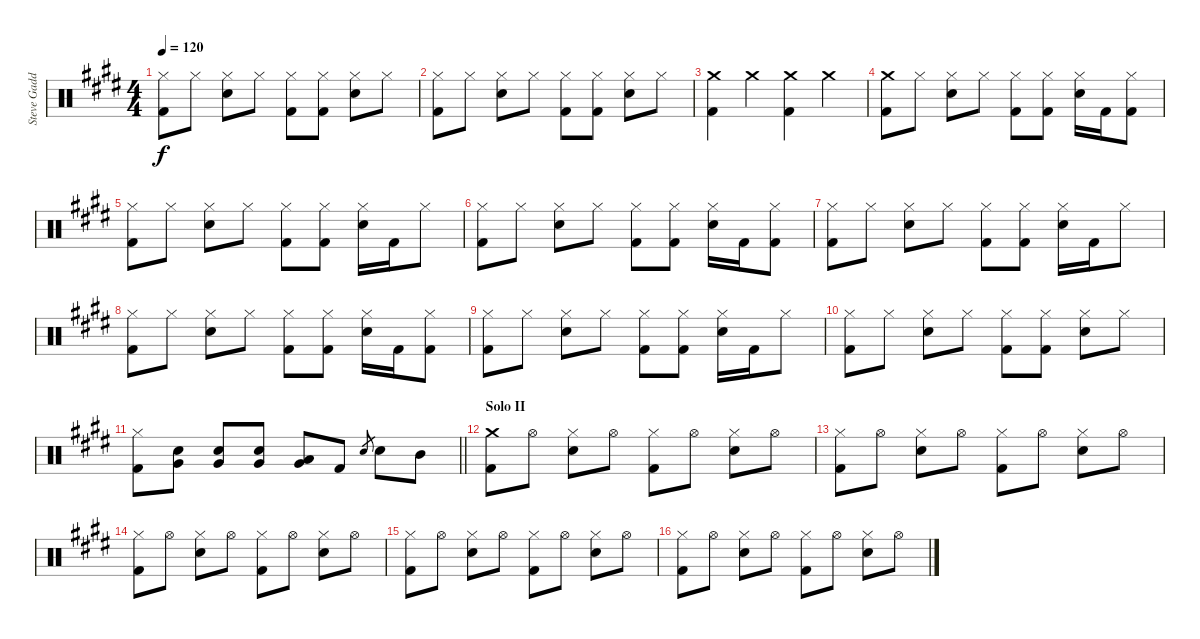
\track ("Steve Gadd Drums" "Steve Gadd") {instrument percussion}
\staff {score}
\articulation defaults
\ts (4 4)
\tempo 120
\clef neutral
\ks e
("Hi-Hat (closed)" "Kick (hit) 2").8{dy f} "Hi-Hat (closed)".8 ("Hi-Hat (closed)" "Snare (hit) 2").8 "Hi-Hat (closed)".8 ("Hi-Hat (closed)" "Kick (hit) 2").8 ("Hi-Hat (closed)" "Kick (hit) 2").8 ("Hi-Hat (closed)" "Snare (hit) 2").8 "Hi-Hat (closed)".8 |
("Hi-Hat (closed)" "Kick (hit) 2").8 "Hi-Hat (closed)".8 ("Hi-Hat (closed)" "Snare (hit) 2").8 "Hi-Hat (closed)".8 ("Hi-Hat (closed)" "Kick (hit) 2").8 ("Hi-Hat (closed)" "Kick (hit) 2").8 ("Hi-Hat (closed)" "Snare (hit) 2").8 "Hi-Hat (closed)".8 |
("Crash medium (hit)" "Kick (hit) 2").4 "Crash medium (hit)".4 ("Crash medium (hit)" "Kick (hit) 2").4 "Crash medium (hit)".4 |
("Crash medium (hit)" "Kick (hit) 2").8 "Hi-Hat (closed)".8 ("Hi-Hat (closed)" "Snare (hit) 2").8 "Hi-Hat (closed)".8 ("Hi-Hat (closed)" "Kick (hit) 2").8 ("Hi-Hat (closed)" "Kick (hit) 2").8 ("Hi-Hat (closed)" "Snare (hit) 2").16 "Kick (hit) 2".16 ("Hi-Hat (closed)" "Kick (hit) 2").8 |
("Hi-Hat (closed)" "Kick (hit) 2").8 "Hi-Hat (closed)".8 ("Hi-Hat (closed)" "Snare (hit) 2").8 "Hi-Hat (closed)".8 ("Hi-Hat (closed)" "Kick (hit) 2").8 ("Hi-Hat (closed)" "Kick (hit) 2").8 ("Hi-Hat (closed)" "Snare (hit) 2").16 "Kick (hit) 2".16 "Hi-Hat (closed)".8 |
("Hi-Hat (closed)" "Kick (hit) 2").8 "Hi-Hat (closed)".8 ("Hi-Hat (closed)" "Snare (hit) 2").8 "Hi-Hat (closed)".8 ("Hi-Hat (closed)" "Kick (hit) 2").8 ("Hi-Hat (closed)" "Kick (hit) 2").8 ("Hi-Hat (closed)" "Snare (hit) 2").16 "Kick (hit) 2".16 ("Hi-Hat (closed)" "Kick (hit) 2").8 |
("Hi-Hat (closed)" "Kick (hit) 2").8 "Hi-Hat (closed)".8 ("Hi-Hat (closed)" "Snare (hit) 2").8 "Hi-Hat (closed)".8 ("Hi-Hat (closed)" "Kick (hit) 2").8 ("Hi-Hat (closed)" "Kick (hit) 2").8 ("Hi-Hat (closed)" "Snare (hit) 2").16 "Kick (hit) 2".16 "Hi-Hat (closed)".8 |
("Hi-Hat (closed)" "Kick (hit) 2").8 "Hi-Hat (closed)".8 ("Hi-Hat (closed)" "Snare (hit) 2").8 "Hi-Hat (closed)".8 ("Hi-Hat (closed)" "Kick (hit) 2").8 ("Hi-Hat (closed)" "Kick (hit) 2").8 ("Hi-Hat (closed)" "Snare (hit) 2").16 "Kick (hit) 2".16 ("Hi-Hat (closed)" "Kick (hit) 2").8 |
("Hi-Hat (closed)" "Kick (hit) 2").8 "Hi-Hat (closed)".8 ("Hi-Hat (closed)" "Snare (hit) 2").8 "Hi-Hat (closed)".8 ("Hi-Hat (closed)" "Kick (hit) 2").8 ("Hi-Hat (closed)" "Kick (hit) 2").8 ("Hi-Hat (closed)" "Snare (hit) 2").16 "Kick (hit) 2".16 "Hi-Hat (closed)".8 |
("Hi-Hat (closed)" "Kick (hit) 2").8 "Hi-Hat (closed)".8 ("Hi-Hat (closed)" "Snare (hit) 2").8 "Hi-Hat (closed)".8 ("Hi-Hat (closed)" "Kick (hit) 2").8 ("Hi-Hat (closed)" "Kick (hit) 2").8 ("Hi-Hat (closed)" "Snare (hit) 2").8 "Hi-Hat (closed)".8 |
\barLineRight lightlight
("Hi-Hat (closed)" "Kick (hit) 2").8 ("Snare (hit) 2" "Very Low Tom (hit)").8 ("Snare (hit) 2" "Very Low Tom (hit)").8 ("Snare (hit) 2" "Very Low Tom (hit)").8 ("Low Tom (hit)" "Very Low Tom (hit)").8 "Kick (hit) 2".8 "Snare (hit) 2".8{gr} "Snare (hit) 2".8 "Mid Tom (hit)".8 |
\section ("" "Solo II")
("Crash medium (hit)" "Kick (hit) 2").8 "Hi-Hat (open)".8 ("Hi-Hat (closed)" "Snare (hit) 2").8 "Hi-Hat (open)".8 ("Hi-Hat (closed)" "Kick (hit) 2").8 "Hi-Hat (open)".8 ("Hi-Hat (closed)" "Snare (hit) 2").8 "Hi-Hat (open)".8 |
("Hi-Hat (closed)" "Kick (hit) 2").8 "Hi-Hat (open)".8 ("Hi-Hat (closed)" "Snare (hit) 2").8 "Hi-Hat (open)".8 ("Hi-Hat (closed)" "Kick (hit) 2").8 "Hi-Hat (open)".8 ("Hi-Hat (closed)" "Snare (hit) 2").8 "Hi-Hat (open)".8 |
("Hi-Hat (closed)" "Kick (hit) 2").8 "Hi-Hat (open)".8 ("Hi-Hat (closed)" "Snare (hit) 2").8 "Hi-Hat (open)".8 ("Hi-Hat (closed)" "Kick (hit) 2").8 "Hi-Hat (open)".8 ("Hi-Hat (closed)" "Snare (hit) 2").8 "Hi-Hat (open)".8 |
("Hi-Hat (closed)" "Kick (hit) 2").8 "Hi-Hat (open)".8 ("Hi-Hat (closed)" "Snare (hit) 2").8 "Hi-Hat (open)".8 ("Hi-Hat (closed)" "Kick (hit) 2").8 "Hi-Hat (open)".8 ("Hi-Hat (closed)" "Snare (hit) 2").8 "Hi-Hat (open)".8 |
("Hi-Hat (closed)" "Kick (hit) 2").8 "Hi-Hat (open)".8 ("Hi-Hat (closed)" "Snare (hit) 2").8 "Hi-Hat (open)".8 ("Hi-Hat (closed)" "Kick (hit) 2").8 "Hi-Hat (open)".8 ("Hi-Hat (closed)" "Snare (hit) 2").8 "Hi-Hat (open)".8
